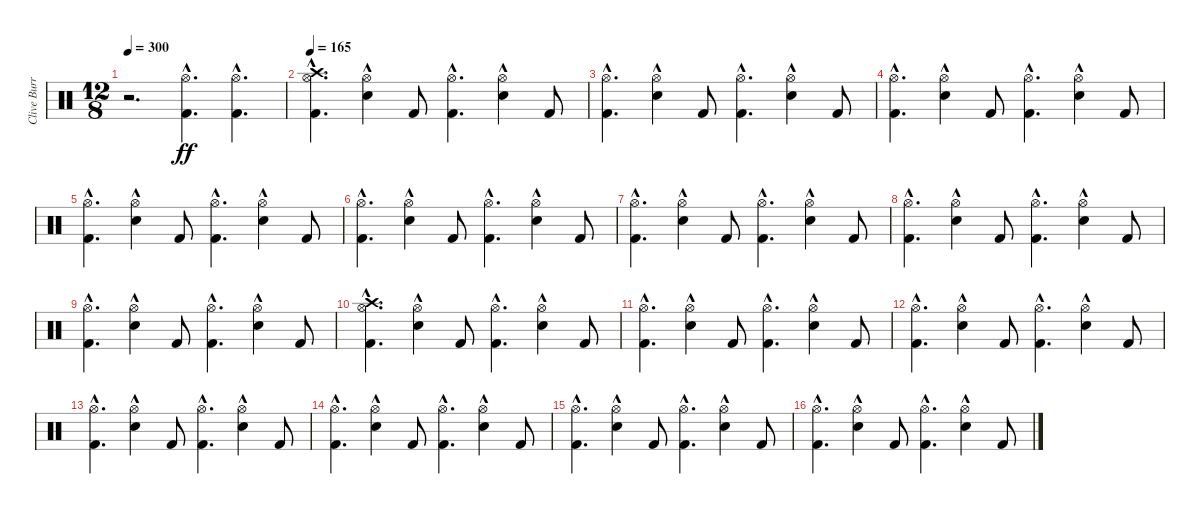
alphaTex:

\track ("Clive Burr" "Clive Burr") {instrument percussion}
\staff {score}
\articulation defaults
\ts (12 8)
\tempo 300
\clef neutral
\ks c
r.2{d dy ff} ("Kick (hit) 2"{hac} "Hi-Hat (open)"{hac}).4{d} ("Kick (hit) 2"{hac} "Hi-Hat (open)"{hac}).4{d} |
\tempo 165
("Kick (hit) 2"{hac} "Hi-Hat (open)"{hac} "Crash high (hit)"{hac}).4{d} ("Snare (hit) 2"{hac} "Hi-Hat (open)").4 "Kick (hit) 2".8 ("Kick (hit) 2"{hac} "Hi-Hat (open)"{hac}).4{d} ("Snare (hit) 2"{hac} "Hi-Hat (open)").4 "Kick (hit) 2".8 |
("Kick (hit) 2"{hac} "Hi-Hat (open)"{hac}).4{d} ("Snare (hit) 2"{hac} "Hi-Hat (open)").4 "Kick (hit) 2".8 ("Kick (hit) 2"{hac} "Hi-Hat (open)"{hac}).4{d} ("Snare (hit) 2"{hac} "Hi-Hat (open)").4 "Kick (hit) 2".8 |
("Kick (hit) 2"{hac} "Hi-Hat (open)"{hac}).4{d} ("Snare (hit) 2"{hac} "Hi-Hat (open)").4 "Kick (hit) 2".8 ("Kick (hit) 2"{hac} "Hi-Hat (open)"{hac}).4{d} ("Snare (hit) 2"{hac} "Hi-Hat (open)").4 "Kick (hit) 2".8 |
("Kick (hit) 2"{hac} "Hi-Hat (open)"{hac}).4{d} ("Snare (hit) 2"{hac} "Hi-Hat (open)").4 "Kick (hit) 2".8 ("Kick (hit) 2"{hac} "Hi-Hat (open)"{hac}).4{d} ("Snare (hit) 2"{hac} "Hi-Hat (open)").4 "Kick (hit) 2".8 |
("Kick (hit) 2"{hac} "Hi-Hat (open)"{hac}).4{d} ("Snare (hit) 2"{hac} "Hi-Hat (open)").4 "Kick (hit) 2".8 ("Kick (hit) 2"{hac} "Hi-Hat (open)"{hac}).4{d} ("Snare (hit) 2"{hac} "Hi-Hat (open)").4 "Kick (hit) 2".8 |
("Kick (hit) 2"{hac} "Hi-Hat (open)"{hac}).4{d} ("Snare (hit) 2"{hac} "Hi-Hat (open)").4 "Kick (hit) 2".8 ("Kick (hit) 2"{hac} "Hi-Hat (open)"{hac}).4{d} ("Snare (hit) 2"{hac} "Hi-Hat (open)").4 "Kick (hit) 2".8 |
("Kick (hit) 2"{hac} "Hi-Hat (open)"{hac}).4{d} ("Snare (hit) 2"{hac} "Hi-Hat (open)").4 "Kick (hit) 2".8 ("Kick (hit) 2"{hac} "Hi-Hat (open)"{hac}).4{d} ("Snare (hit) 2"{hac} "Hi-Hat (open)").4 "Kick (hit) 2".8 |
("Kick (hit) 2"{hac} "Hi-Hat (open)"{hac}).4{d} ("Snare (hit) 2"{hac} "Hi-Hat (open)").4 "Kick (hit) 2".8 ("Kick (hit) 2"{hac} "Hi-Hat (open)"{hac}).4{d} ("Snare (hit) 2"{hac} "Hi-Hat (open)").4 "Kick (hit) 2".8 |
("Kick (hit) 2"{hac} "Hi-Hat (open)"{hac} "Crash high (hit)"{hac}).4{d} ("Snare (hit) 2"{hac} "Hi-Hat (open)").4 "Kick (hit) 2".8 ("Kick (hit) 2"{hac} "Hi-Hat (open)"{hac}).4{d} ("Snare (hit) 2"{hac} "Hi-Hat (open)").4 "Kick (hit) 2".8 |
("Kick (hit) 2"{hac} "Hi-Hat (open)"{hac}).4{d} ("Snare (hit) 2"{hac} "Hi-Hat (open)").4 "Kick (hit) 2".8 ("Kick (hit) 2"{hac} "Hi-Hat (open)"{hac}).4{d} ("Snare (hit) 2"{hac} "Hi-Hat (open)").4 "Kick (hit) 2".8 |
("Kick (hit) 2"{hac} "Hi-Hat (open)"{hac}).4{d} ("Snare (hit) 2"{hac} "Hi-Hat (open)").4 "Kick (hit) 2".8 ("Kick (hit) 2"{hac} "Hi-Hat (open)"{hac}).4{d} ("Snare (hit) 2"{hac} "Hi-Hat (open)").4 "Kick (hit) 2".8 |
("Kick (hit) 2"{hac} "Hi-Hat (open)"{hac}).4{d} ("Snare (hit) 2"{hac} "Hi-Hat (open)").4 "Kick (hit) 2".8 ("Kick (hit) 2"{hac} "Hi-Hat (open)"{hac}).4{d} ("Snare (hit) 2"{hac} "Hi-Hat (open)").4 "Kick (hit) 2".8 |
("Kick (hit) 2"{hac} "Hi-Hat (open)"{hac}).4{d} ("Snare (hit) 2"{hac} "Hi-Hat (open)").4 "Kick (hit) 2".8 ("Kick (hit) 2"{hac} "Hi-Hat (open)"{hac}).4{d} ("Snare (hit) 2"{hac} "Hi-Hat (open)").4 "Kick (hit) 2".8 |
("Kick (hit) 2"{hac} "Hi-Hat (open)"{hac}).4{d} ("Snare (hit) 2"{hac} "Hi-Hat (open)").4 "Kick (hit) 2".8 ("Kick (hit) 2"{hac} "Hi-Hat (open)"{hac}).4{d} ("Snare (hit) 2"{hac} "Hi-Hat (open)").4 "Kick (hit) 2".8 |
("Kick (hit) 2"{hac} "Hi-Hat (open)"{hac}).4{d} ("Snare (hit) 2"{hac} "Hi-Hat (open)").4 "Kick (hit) 2".8 ("Kick (hit) 2"{hac} "Hi-Hat (open)"{hac}).4{d} ("Snare (hit) 2"{hac} "Hi-Hat (open)").4 "Kick (hit) 2".8
